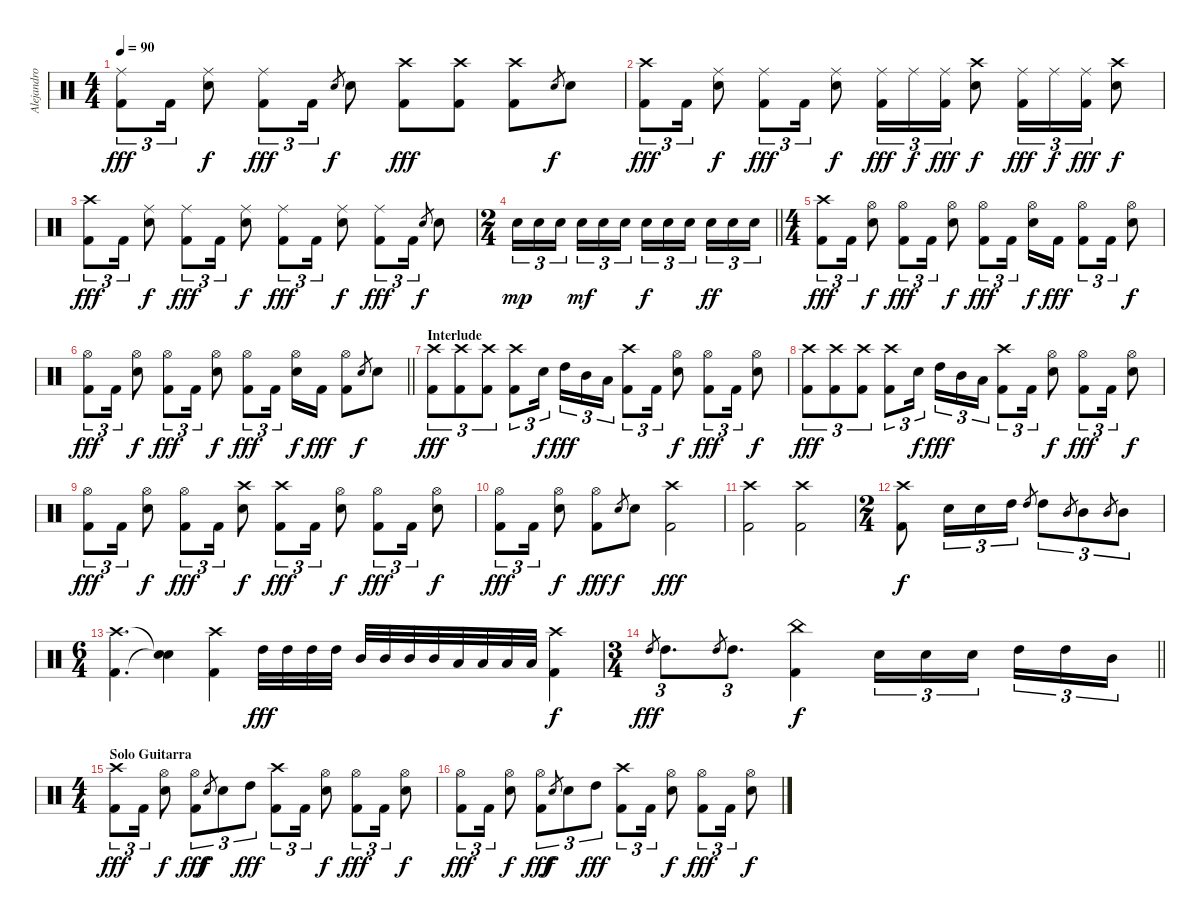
\track ("Alejandro Gutiérrez" "Alejandro ") {instrument percussion}
\staff {score}
\articulation defaults
\ts (4 4)
\tempo 90
\clef neutral
\ks c
("Ride (middle)" "Kick (hit) 2").8{tu (3 2) dy fff} "Kick (hit) 2".16{tu (3 2)} ("Ride (middle)" "Electric Snare (hit)").8{dy f} ("Ride (middle)" "Kick (hit) 2").8{tu (3 2) dy fff} "Kick (hit) 2".16{tu (3 2)} "Electric Snare (hit)".8{gr dy f} "Electric Snare (hit)".8 ("Crash high (hit)" "Kick (hit) 2").8{dy fff} ("Crash high (hit)" "Kick (hit) 2").8 ("Crash high (hit)" "Kick (hit) 2").8 "Electric Snare (hit)".8{gr dy f} "Electric Snare (hit)".8 |
("Crash high (hit)" "Kick (hit) 2").8{tu (3 2) dy fff} "Kick (hit) 2".16{tu (3 2)} ("Ride (middle)" "Electric Snare (hit)").8{dy f} ("Ride (middle)" "Kick (hit) 2").8{tu (3 2) dy fff} "Kick (hit) 2".16{tu (3 2)} ("Ride (middle)" "Electric Snare (hit)").8{dy f} ("Ride (middle)" "Kick (hit) 2").16{tu (3 2) dy fff} "Ride (middle)".16{tu (3 2) dy f} ("Ride (middle)" "Kick (hit) 2").16{tu (3 2) dy fff} ("Crash high (hit)" "Electric Snare (hit)").8{dy f} ("Ride (middle)" "Kick (hit) 2").16{tu (3 2) dy fff} "Ride (middle)".16{tu (3 2) dy f} ("Ride (middle)" "Kick (hit) 2").16{tu (3 2) dy fff} ("Crash high (hit)" "Electric Snare (hit)").8{dy f} |
("Crash high (hit)" "Kick (hit) 2").8{tu (3 2) dy fff} "Kick (hit) 2".16{tu (3 2)} ("Ride (middle)" "Electric Snare (hit)").8{dy f} ("Ride (middle)" "Kick (hit) 2").8{tu (3 2) dy fff} "Kick (hit) 2".16{tu (3 2)} ("Ride (middle)" "Electric Snare (hit)").8{dy f} ("Ride (middle)" "Kick (hit) 2").8{tu (3 2) dy fff} "Kick (hit) 2".16{tu (3 2)} ("Ride (middle)" "Electric Snare (hit)").8{dy f} ("Ride (middle)" "Kick (hit) 2").8{tu (3 2) dy fff} "Kick (hit) 2".16{tu (3 2)} "Electric Snare (hit)".8{gr dy f} "Electric Snare (hit)".8 |
\ts (2 4)
\barLineRight lightlight "Electric Snare (hit)".16{tu (3 2) dy mp} "Electric Snare (hit)".16{tu (3 2)} "Electric Snare (hit)".16{tu (3 2) beam splitsecondary} "Electric Snare (hit)".16{tu (3 2) dy mf} "Electric Snare (hit)".16{tu (3 2)} "Electric Snare (hit)".16{tu (3 2)} "Electric Snare (hit)".16{tu (3 2) dy f} "Electric Snare (hit)".16{tu (3 2)} "Electric Snare (hit)".16{tu (3 2) beam splitsecondary} "Electric Snare (hit)".16{tu (3 2) dy ff} "Electric Snare (hit)".16{tu (3 2)} "Electric Snare (hit)".16{tu (3 2)}
|
\ts (4 4)
("Crash high (hit)" "Kick (hit) 2").8{tu (3 2) dy fff} "Kick (hit) 2".16{tu (3 2)} ("Hi-Hat (open)" "Electric Snare (hit)").8{dy f} ("Hi-Hat (open)" "Kick (hit) 2").8{tu (3 2) dy fff} "Kick (hit) 2".16{tu (3 2)} ("Hi-Hat (open)" "Electric Snare (hit)").8{dy f} ("Hi-Hat (open)" "Kick (hit) 2").8{tu (3 2) dy fff} "Kick (hit) 2".16{tu (3 2) beam splitsecondary} ("Hi-Hat (open)" "Electric Snare (hit)").16{dy f} "Kick (hit) 2".16{dy fff} ("Hi-Hat (open)" "Kick (hit) 2").8{tu (3 2)} "Kick (hit) 2".16{tu (3 2)} ("Hi-Hat (open)" "Electric Snare (hit)").8{dy f} |
\barLineRight lightlight
("Hi-Hat (open)" "Kick (hit) 2").8{tu (3 2) dy fff} "Kick (hit) 2".16{tu (3 2)} ("Hi-Hat (open)" "Electric Snare (hit)").8{dy f} ("Hi-Hat (open)" "Kick (hit) 2").8{tu (3 2) dy fff} "Kick (hit) 2".16{tu (3 2)} ("Hi-Hat (open)" "Electric Snare (hit)").8{dy f} ("Hi-Hat (open)" "Kick (hit) 2").8{tu (3 2) dy fff} "Kick (hit) 2".16{tu (3 2) beam splitsecondary} ("Hi-Hat (open)" "Electric Snare (hit)").16{dy f} "Kick (hit) 2".16{dy fff} ("Hi-Hat (open)" "Kick (hit) 2").8 "Electric Snare (hit)".8{gr dy f} "Electric Snare (hit)".8 |
\section ("" "Interlude")
("Crash high (hit)" "Kick (hit) 2").8{tu (3 2) dy fff} ("Crash high (hit)" "Kick (hit) 2").8{tu (3 2)} ("Crash high (hit)" "Kick (hit) 2").8{tu (3 2)} ("Crash high (hit)" "Kick (hit) 2").8{tu (3 2)} "Electric Snare (hit)".16{tu (3 2) dy f beam splitsecondary} "High Tom (hit)".16{tu (3 2) dy fff} "Mid Tom (hit)".16{tu (3 2)} "Low Tom (hit)".16{tu (3 2)} ("Crash high (hit)" "Kick (hit) 2").8{tu (3 2)} "Kick (hit) 2".16{tu (3 2)} ("Hi-Hat (open)" "Electric Snare (hit)").8{dy f} ("Hi-Hat (open)" "Kick (hit) 2").8{tu (3 2) dy fff} "Kick (hit) 2".16{tu (3 2)} ("Hi-Hat (open)" "Electric Snare (hit)").8{dy f} |
("Crash high (hit)" "Kick (hit) 2").8{tu (3 2) dy fff} ("Crash high (hit)" "Kick (hit) 2").8{tu (3 2)} ("Crash high (hit)" "Kick (hit) 2").8{tu (3 2)} ("Crash high (hit)" "Kick (hit) 2").8{tu (3 2)} "Electric Snare (hit)".16{tu (3 2) dy f beam splitsecondary} "High Tom (hit)".16{tu (3 2) dy fff} "Mid Tom (hit)".16{tu (3 2)} "Low Tom (hit)".16{tu (3 2)} ("Crash high (hit)" "Kick (hit) 2").8{tu (3 2)} "Kick (hit) 2".16{tu (3 2)} ("Hi-Hat (open)" "Electric Snare (hit)").8{dy f} ("Hi-Hat (open)" "Kick (hit) 2").8{tu (3 2) dy fff} "Kick (hit) 2".16{tu (3 2)} ("Hi-Hat (open)" "Electric Snare (hit)").8{dy f} |
("Hi-Hat (open)" "Kick (hit) 2").8{tu (3 2) dy fff} "Kick (hit) 2".16{tu (3 2)} ("Hi-Hat (open)" "Electric Snare (hit)").8{dy f} ("Hi-Hat (open)" "Kick (hit) 2").8{tu (3 2) dy fff} "Kick (hit) 2".16{tu (3 2)} ("Crash high (hit)" "Electric Snare (hit)").8{dy f} ("Crash high (hit)" "Kick (hit) 2").8{tu (3 2) dy fff} "Kick (hit) 2".16{tu (3 2)} ("Hi-Hat (open)" "Electric Snare (hit)").8{dy f} ("Hi-Hat (open)" "Kick (hit) 2").8{tu (3 2) dy fff} "Kick (hit) 2".16{tu (3 2)} ("Hi-Hat (open)" "Electric Snare (hit)").8{dy f} |
("Hi-Hat (open)" "Kick (hit) 2").8{tu (3 2) dy fff} "Kick (hit) 2".16{tu (3 2)} ("Hi-Hat (open)" "Electric Snare (hit)").8{dy f} ("Hi-Hat (open)" "Kick (hit) 2").8{dy fff} "Electric Snare (hit)".8{gr dy f} "Electric Snare (hit)".8 ("Crash high (hit)" "Kick (hit) 2").2{dy fff} |
("Crash high (hit)" "Kick (hit) 2").2 ("Crash high (hit)" "Kick (hit) 2").2 |
\ts (2 4)
("Crash high (hit)" "Kick (hit) 2").8{dy f} "Electric Snare (hit)".16{tu (3 2)} "Electric Snare (hit)".16{tu (3 2)} "High Tom (hit)".16{tu (3 2)} "High Tom (hit)".8{gr} "High Tom (hit)".8{tu (3 2)} "Mid Tom (hit)".8{gr} "Mid Tom (hit)".8{tu (3 2)} "Mid Tom (hit)".8{gr} "Mid Tom (hit)".8{tu (3 2)} |
\ts (6 4)
("Crash high (hit)" "Kick (hit) 2").4{d} ("Snare (hit)"{t} "Snare (hit)"{t}).4 ("Crash high (hit)" "Kick (hit) 2").4 "High Tom (hit)".32{dy fff} "High Tom (hit)".32 "High Tom (hit)".32 "High Tom (hit)".32 "Mid Tom (hit)".32 "Mid Tom (hit)".32 "Mid Tom (hit)".32 "Mid Tom (hit)".32 "Low Tom (hit)".32 "Low Tom (hit)".32 "Low Tom (hit)".32 "Low Tom (hit)".32 ("Crash high (hit)" "Kick (hit) 2").4{dy f} |
\ts (3 4)
\barLineRight lightlight "High Tom (hit)".8{gr dy fff} "High Tom (hit)".8{d tu (3 2)} "High Tom (hit)".8{gr} "High Tom (hit)".8{d tu (3 2)}
("China (hit)" "Kick (hit) 2").4{dy f} "Electric Snare (hit)".16{tu (3 2)} "Electric Snare (hit)".16{tu (3 2)} "Electric Snare (hit)".16{tu (3 2) beam splitsecondary} "High Tom (hit)".16{tu (3 2)} "High Tom (hit)".16{tu (3 2)} "Mid Tom (hit)".16{tu (3 2)} |
\ts (4 4)
\section ("" "Solo Guitarra")
("Crash high (hit)" "Kick (hit) 2").8{tu (3 2) dy fff} "Kick (hit) 2".16{tu (3 2)} ("Hi-Hat (open)" "Electric Snare (hit)").8{dy f} ("Hi-Hat (open)" "Kick (hit) 2").8{tu (3 2) dy fff} "Electric Snare (hit)".8{gr dy f} "Electric Snare (hit)".8{tu (3 2)} "High Tom (hit)".8{tu (3 2) dy fff} ("Crash high (hit)" "Kick (hit) 2").8{tu (3 2)} "Kick (hit) 2".16{tu (3 2)} ("Hi-Hat (open)" "Electric Snare (hit)").8{dy f} ("Hi-Hat (open)" "Kick (hit) 2").8{tu (3 2) dy fff} "Kick (hit) 2".16{tu (3 2)} ("Hi-Hat (open)" "Electric Snare (hit)").8{dy f} |
("Hi-Hat (open)" "Kick (hit) 2").8{tu (3 2) dy fff} "Kick (hit) 2".16{tu (3 2)} ("Hi-Hat (open)" "Electric Snare (hit)").8{dy f} ("Hi-Hat (open)" "Kick (hit) 2").8{tu (3 2) dy fff} "Electric Snare (hit)".8{gr dy f} "Electric Snare (hit)".8{tu (3 2)} "High Tom (hit)".8{tu (3 2) dy fff} ("Crash high (hit)" "Kick (hit) 2").8{tu (3 2)} "Kick (hit) 2".16{tu (3 2)} ("Hi-Hat (open)" "Electric Snare (hit)").8{dy f} ("Hi-Hat (open)" "Kick (hit) 2").8{tu (3 2) dy fff} "Kick (hit) 2".16{tu (3 2)} ("Hi-Hat (open)" "Electric Snare (hit)").8{dy f}
